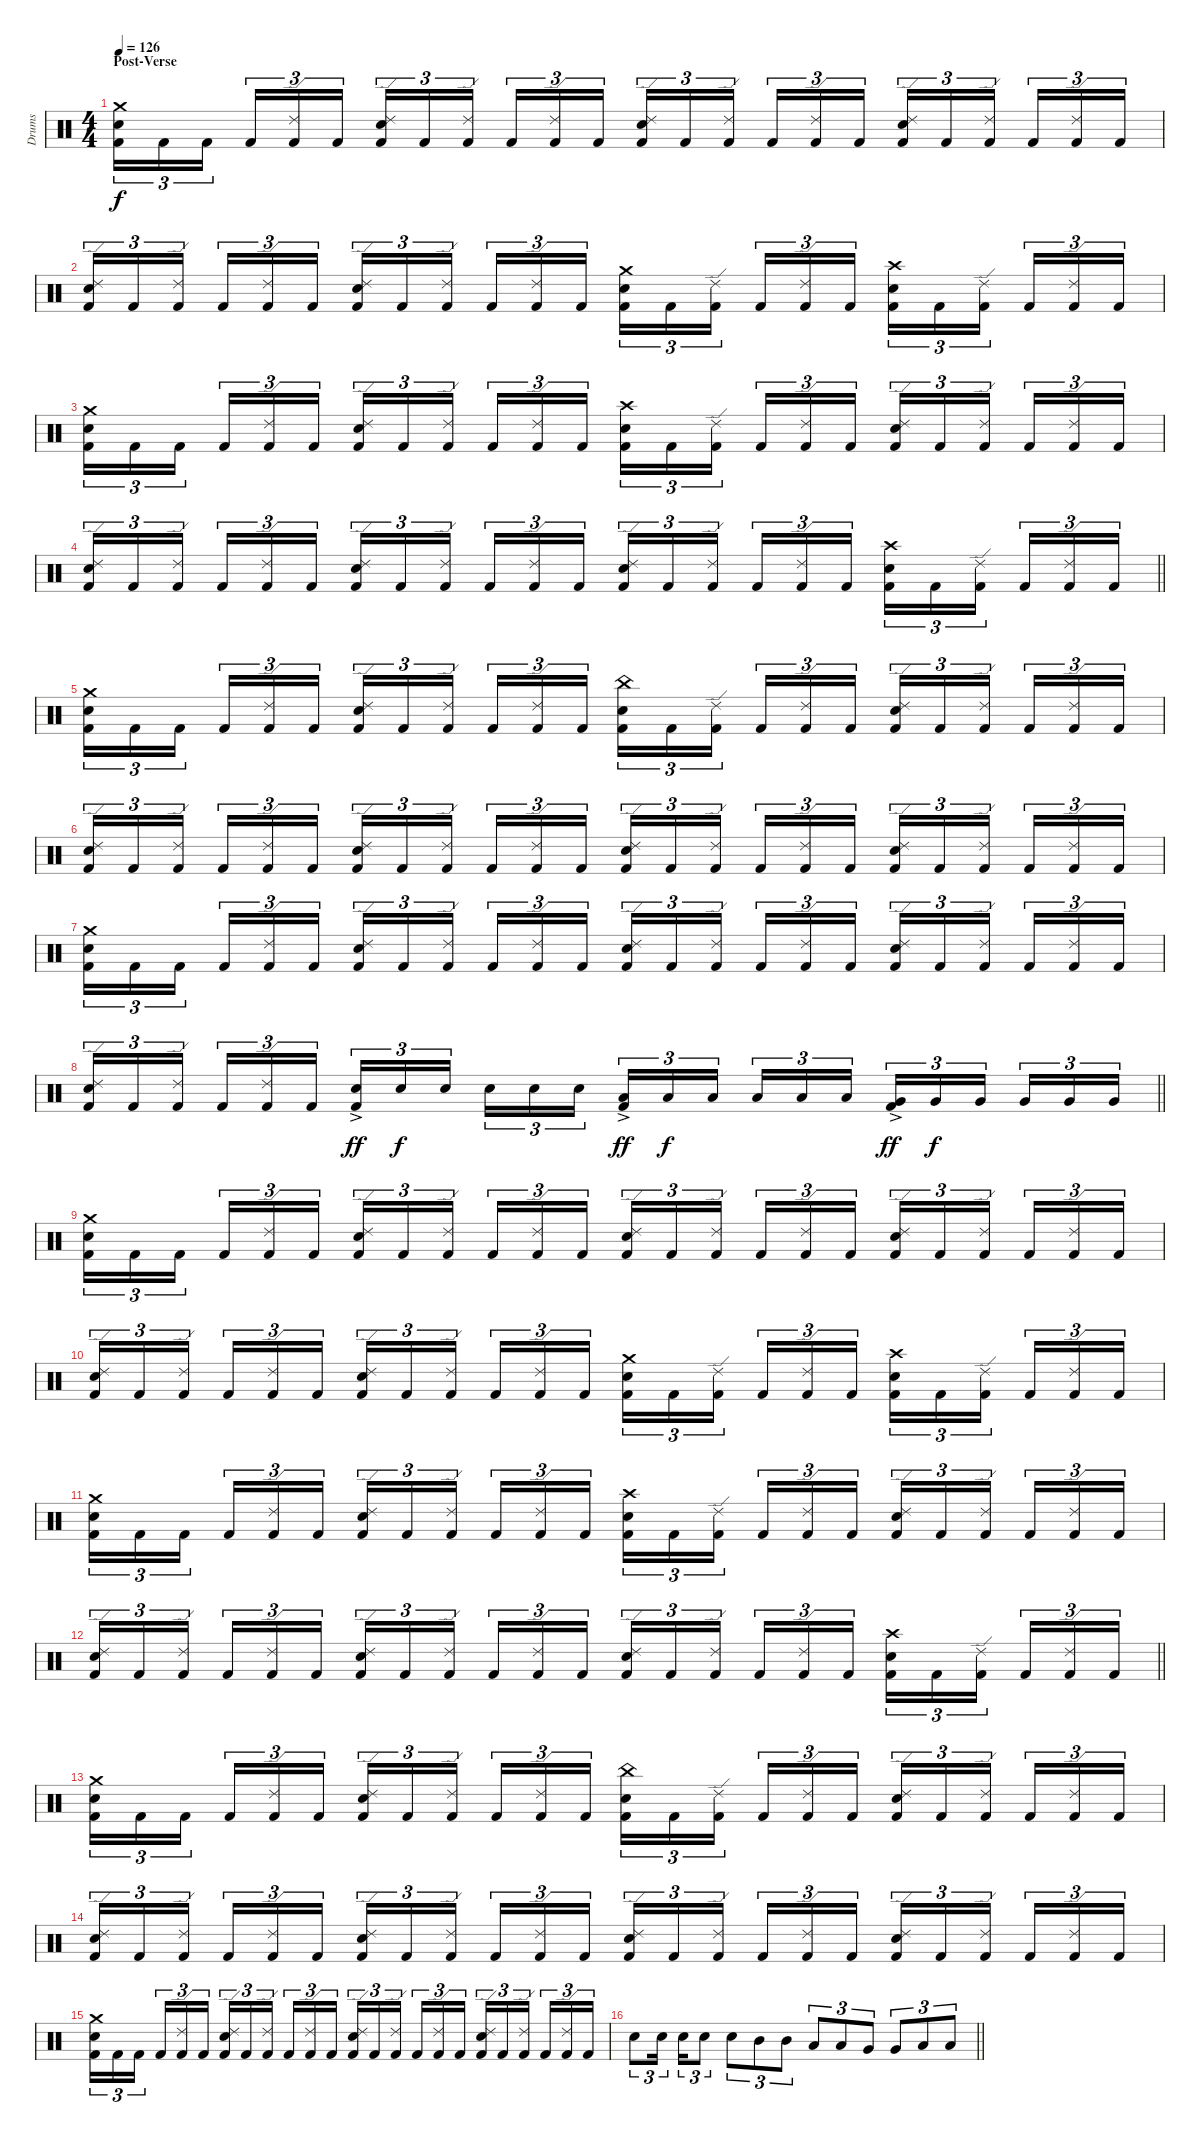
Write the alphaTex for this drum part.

\track ("Drums" "Drums") {instrument percussion}
\staff {score}
\articulation defaults
\ts (4 4)
\section ("" "Post-Verse")
\tempo 126
\clef neutral
\ks c
("Kick (hit) 2" "Snare (hit) 2" "Crash medium (hit)").16{tu (3 2) dy f} "Kick (hit) 2".16{tu (3 2)} "Kick (hit) 2".16{tu (3 2) beam splitsecondary} "Kick (hit) 2".16{tu (3 2)} ("Kick (hit) 2" "Ride (edge) 2").16{tu (3 2)} "Kick (hit) 2".16{tu (3 2)} ("Kick (hit) 2" "Snare (hit) 2" "Ride (edge) 2").16{tu (3 2)} "Kick (hit) 2".16{tu (3 2)} ("Kick (hit) 2" "Ride (edge) 2").16{tu (3 2) beam splitsecondary} "Kick (hit) 2".16{tu (3 2)} ("Kick (hit) 2" "Ride (edge) 2").16{tu (3 2)} "Kick (hit) 2".16{tu (3 2)} ("Kick (hit) 2" "Snare (hit) 2" "Ride (edge) 2").16{tu (3 2)} "Kick (hit) 2".16{tu (3 2)} ("Kick (hit) 2" "Ride (edge) 2").16{tu (3 2) beam splitsecondary} "Kick (hit) 2".16{tu (3 2)} ("Kick (hit) 2" "Ride (edge) 2").16{tu (3 2)} "Kick (hit) 2".16{tu (3 2)} ("Kick (hit) 2" "Snare (hit) 2" "Ride (edge) 2").16{tu (3 2)} "Kick (hit) 2".16{tu (3 2)} ("Kick (hit) 2" "Ride (edge) 2").16{tu (3 2) beam splitsecondary} "Kick (hit) 2".16{tu (3 2)} ("Kick (hit) 2" "Ride (edge) 2").16{tu (3 2)} "Kick (hit) 2".16{tu (3 2)} |
("Kick (hit) 2" "Snare (hit) 2" "Ride (edge) 2").16{tu (3 2)} "Kick (hit) 2".16{tu (3 2)} ("Kick (hit) 2" "Ride (edge) 2").16{tu (3 2) beam splitsecondary} "Kick (hit) 2".16{tu (3 2)} ("Kick (hit) 2" "Ride (edge) 2").16{tu (3 2)} "Kick (hit) 2".16{tu (3 2)} ("Kick (hit) 2" "Snare (hit) 2" "Ride (edge) 2").16{tu (3 2)} "Kick (hit) 2".16{tu (3 2)} ("Kick (hit) 2" "Ride (edge) 2").16{tu (3 2) beam splitsecondary} "Kick (hit) 2".16{tu (3 2)} ("Kick (hit) 2" "Ride (edge) 2").16{tu (3 2)} "Kick (hit) 2".16{tu (3 2)} ("Kick (hit) 2" "Snare (hit) 2" "Crash medium (hit)").16{tu (3 2)} "Kick (hit) 2".16{tu (3 2)} ("Kick (hit) 2" "Ride (edge) 2").16{tu (3 2) beam splitsecondary} "Kick (hit) 2".16{tu (3 2)} ("Kick (hit) 2" "Ride (edge) 2").16{tu (3 2)} "Kick (hit) 2".16{tu (3 2)} ("Kick (hit) 2" "Snare (hit) 2" "Crash high (hit)").16{tu (3 2)} "Kick (hit) 2".16{tu (3 2)} ("Kick (hit) 2" "Ride (edge) 2").16{tu (3 2) beam splitsecondary} "Kick (hit) 2".16{tu (3 2)} ("Kick (hit) 2" "Ride (edge) 2").16{tu (3 2)} "Kick (hit) 2".16{tu (3 2)} |
("Kick (hit) 2" "Snare (hit) 2" "Crash medium (hit)").16{tu (3 2)} "Kick (hit) 2".16{tu (3 2)} "Kick (hit) 2".16{tu (3 2) beam splitsecondary} "Kick (hit) 2".16{tu (3 2)} ("Kick (hit) 2" "Ride (edge) 2").16{tu (3 2)} "Kick (hit) 2".16{tu (3 2)} ("Kick (hit) 2" "Snare (hit) 2" "Ride (edge) 2").16{tu (3 2)} "Kick (hit) 2".16{tu (3 2)} ("Kick (hit) 2" "Ride (edge) 2").16{tu (3 2) beam splitsecondary} "Kick (hit) 2".16{tu (3 2)} ("Kick (hit) 2" "Ride (edge) 2").16{tu (3 2)} "Kick (hit) 2".16{tu (3 2)} ("Kick (hit) 2" "Snare (hit) 2" "Crash high (hit)").16{tu (3 2)} "Kick (hit) 2".16{tu (3 2)} ("Kick (hit) 2" "Ride (edge) 2").16{tu (3 2) beam splitsecondary} "Kick (hit) 2".16{tu (3 2)} ("Kick (hit) 2" "Ride (edge) 2").16{tu (3 2)} "Kick (hit) 2".16{tu (3 2)} ("Kick (hit) 2" "Snare (hit) 2" "Ride (edge) 2").16{tu (3 2)} "Kick (hit) 2".16{tu (3 2)} ("Kick (hit) 2" "Ride (edge) 2").16{tu (3 2) beam splitsecondary} "Kick (hit) 2".16{tu (3 2)} ("Kick (hit) 2" "Ride (edge) 2").16{tu (3 2)} "Kick (hit) 2".16{tu (3 2)} |
\barLineRight lightlight
("Kick (hit) 2" "Snare (hit) 2" "Ride (edge) 2").16{tu (3 2)} "Kick (hit) 2".16{tu (3 2)} ("Kick (hit) 2" "Ride (edge) 2").16{tu (3 2) beam splitsecondary} "Kick (hit) 2".16{tu (3 2)} ("Kick (hit) 2" "Ride (edge) 2").16{tu (3 2)} "Kick (hit) 2".16{tu (3 2)} ("Kick (hit) 2" "Snare (hit) 2" "Ride (edge) 2").16{tu (3 2)} "Kick (hit) 2".16{tu (3 2)} ("Kick (hit) 2" "Ride (edge) 2").16{tu (3 2) beam splitsecondary} "Kick (hit) 2".16{tu (3 2)} ("Kick (hit) 2" "Ride (edge) 2").16{tu (3 2)} "Kick (hit) 2".16{tu (3 2)} ("Kick (hit) 2" "Snare (hit) 2" "Ride (edge) 2").16{tu (3 2)} "Kick (hit) 2".16{tu (3 2)} ("Kick (hit) 2" "Ride (edge) 2").16{tu (3 2) beam splitsecondary} "Kick (hit) 2".16{tu (3 2)} ("Kick (hit) 2" "Ride (edge) 2").16{tu (3 2)} "Kick (hit) 2".16{tu (3 2)} ("Kick (hit) 2" "Snare (hit) 2" "Crash high (hit)").16{tu (3 2)} "Kick (hit) 2".16{tu (3 2)} ("Kick (hit) 2" "Ride (edge) 2").16{tu (3 2) beam splitsecondary} "Kick (hit) 2".16{tu (3 2)} ("Kick (hit) 2" "Ride (edge) 2").16{tu (3 2)} "Kick (hit) 2".16{tu (3 2)} |
\section ("" "")
("Kick (hit) 2" "Snare (hit) 2" "Crash medium (hit)").16{tu (3 2)} "Kick (hit) 2".16{tu (3 2)} "Kick (hit) 2".16{tu (3 2) beam splitsecondary} "Kick (hit) 2".16{tu (3 2)} ("Kick (hit) 2" "Ride (edge) 2").16{tu (3 2)} "Kick (hit) 2".16{tu (3 2)} ("Kick (hit) 2" "Snare (hit) 2" "Ride (edge) 2").16{tu (3 2)} "Kick (hit) 2".16{tu (3 2)} ("Kick (hit) 2" "Ride (edge) 2").16{tu (3 2) beam splitsecondary} "Kick (hit) 2".16{tu (3 2)} ("Kick (hit) 2" "Ride (edge) 2").16{tu (3 2)} "Kick (hit) 2".16{tu (3 2)} ("Kick (hit) 2" "Snare (hit) 2" "China (hit)").16{tu (3 2)} "Kick (hit) 2".16{tu (3 2)} ("Kick (hit) 2" "Ride (edge) 2").16{tu (3 2) beam splitsecondary} "Kick (hit) 2".16{tu (3 2)} ("Kick (hit) 2" "Ride (edge) 2").16{tu (3 2)} "Kick (hit) 2".16{tu (3 2)} ("Kick (hit) 2" "Snare (hit) 2" "Ride (edge) 2").16{tu (3 2)} "Kick (hit) 2".16{tu (3 2)} ("Kick (hit) 2" "Ride (edge) 2").16{tu (3 2) beam splitsecondary} "Kick (hit) 2".16{tu (3 2)} ("Kick (hit) 2" "Ride (edge) 2").16{tu (3 2)} "Kick (hit) 2".16{tu (3 2)} |
("Kick (hit) 2" "Snare (hit) 2" "Ride (edge) 2").16{tu (3 2)} "Kick (hit) 2".16{tu (3 2)} ("Kick (hit) 2" "Ride (edge) 2").16{tu (3 2) beam splitsecondary} "Kick (hit) 2".16{tu (3 2)} ("Kick (hit) 2" "Ride (edge) 2").16{tu (3 2)} "Kick (hit) 2".16{tu (3 2)} ("Kick (hit) 2" "Snare (hit) 2" "Ride (edge) 2").16{tu (3 2)} "Kick (hit) 2".16{tu (3 2)} ("Kick (hit) 2" "Ride (edge) 2").16{tu (3 2) beam splitsecondary} "Kick (hit) 2".16{tu (3 2)} ("Kick (hit) 2" "Ride (edge) 2").16{tu (3 2)} "Kick (hit) 2".16{tu (3 2)} ("Kick (hit) 2" "Snare (hit) 2" "Ride (edge) 2").16{tu (3 2)} "Kick (hit) 2".16{tu (3 2)} ("Kick (hit) 2" "Ride (edge) 2").16{tu (3 2) beam splitsecondary} "Kick (hit) 2".16{tu (3 2)} ("Kick (hit) 2" "Ride (edge) 2").16{tu (3 2)} "Kick (hit) 2".16{tu (3 2)} ("Kick (hit) 2" "Snare (hit) 2" "Ride (edge) 2").16{tu (3 2)} "Kick (hit) 2".16{tu (3 2)} ("Kick (hit) 2" "Ride (edge) 2").16{tu (3 2) beam splitsecondary} "Kick (hit) 2".16{tu (3 2)} ("Kick (hit) 2" "Ride (edge) 2").16{tu (3 2)} "Kick (hit) 2".16{tu (3 2)} |
("Kick (hit) 2" "Snare (hit) 2" "Crash medium (hit)").16{tu (3 2)} "Kick (hit) 2".16{tu (3 2)} "Kick (hit) 2".16{tu (3 2) beam splitsecondary} "Kick (hit) 2".16{tu (3 2)} ("Kick (hit) 2" "Ride (edge) 2").16{tu (3 2)} "Kick (hit) 2".16{tu (3 2)} ("Kick (hit) 2" "Snare (hit) 2" "Ride (edge) 2").16{tu (3 2)} "Kick (hit) 2".16{tu (3 2)} ("Kick (hit) 2" "Ride (edge) 2").16{tu (3 2) beam splitsecondary} "Kick (hit) 2".16{tu (3 2)} ("Kick (hit) 2" "Ride (edge) 2").16{tu (3 2)} "Kick (hit) 2".16{tu (3 2)} ("Kick (hit) 2" "Snare (hit) 2" "Ride (edge) 2").16{tu (3 2)} "Kick (hit) 2".16{tu (3 2)} ("Kick (hit) 2" "Ride (edge) 2").16{tu (3 2) beam splitsecondary} "Kick (hit) 2".16{tu (3 2)} ("Kick (hit) 2" "Ride (edge) 2").16{tu (3 2)} "Kick (hit) 2".16{tu (3 2)} ("Kick (hit) 2" "Snare (hit) 2" "Ride (edge) 2").16{tu (3 2)} "Kick (hit) 2".16{tu (3 2)} ("Kick (hit) 2" "Ride (edge) 2").16{tu (3 2) beam splitsecondary} "Kick (hit) 2".16{tu (3 2)} ("Kick (hit) 2" "Ride (edge) 2").16{tu (3 2)} "Kick (hit) 2".16{tu (3 2)} |
\barLineRight lightlight
("Kick (hit) 2" "Snare (hit) 2" "Ride (edge) 2").16{tu (3 2)} "Kick (hit) 2".16{tu (3 2)} ("Kick (hit) 2" "Ride (edge) 2").16{tu (3 2) beam splitsecondary} "Kick (hit) 2".16{tu (3 2)} ("Kick (hit) 2" "Ride (edge) 2").16{tu (3 2)} "Kick (hit) 2".16{tu (3 2)} ("Kick (hit) 2"{ac} "Snare (hit) 2").16{tu (3 2) dy ff} "Snare (hit) 2".16{tu (3 2) dy f} "Snare (hit) 2".16{tu (3 2) beam splitsecondary} "Snare (hit) 2".16{tu (3 2)} "Snare (hit) 2".16{tu (3 2)} "Snare (hit) 2".16{tu (3 2)} ("Kick (hit) 2"{ac} "Low Tom (hit)").16{tu (3 2) dy ff} "Low Tom (hit)".16{tu (3 2) dy f} "Low Tom (hit)".16{tu (3 2) beam splitsecondary} "Low Tom (hit)".16{tu (3 2)} "Low Tom (hit)".16{tu (3 2)} "Low Tom (hit)".16{tu (3 2)} ("Kick (hit) 2"{ac} "Very Low Tom (hit)").16{tu (3 2) dy ff} "Very Low Tom (hit)".16{tu (3 2) dy f} "Very Low Tom (hit)".16{tu (3 2) beam splitsecondary} "Very Low Tom (hit)".16{tu (3 2)} "Very Low Tom (hit)".16{tu (3 2)} "Very Low Tom (hit)".16{tu (3 2)} |
\section ("" "")
("Kick (hit) 2" "Snare (hit) 2" "Crash medium (hit)").16{tu (3 2)} "Kick (hit) 2".16{tu (3 2)} "Kick (hit) 2".16{tu (3 2) beam splitsecondary} "Kick (hit) 2".16{tu (3 2)} ("Kick (hit) 2" "Ride (edge) 2").16{tu (3 2)} "Kick (hit) 2".16{tu (3 2)} ("Kick (hit) 2" "Snare (hit) 2" "Ride (edge) 2").16{tu (3 2)} "Kick (hit) 2".16{tu (3 2)} ("Kick (hit) 2" "Ride (edge) 2").16{tu (3 2) beam splitsecondary} "Kick (hit) 2".16{tu (3 2)} ("Kick (hit) 2" "Ride (edge) 2").16{tu (3 2)} "Kick (hit) 2".16{tu (3 2)} ("Kick (hit) 2" "Snare (hit) 2" "Ride (edge) 2").16{tu (3 2)} "Kick (hit) 2".16{tu (3 2)} ("Kick (hit) 2" "Ride (edge) 2").16{tu (3 2) beam splitsecondary} "Kick (hit) 2".16{tu (3 2)} ("Kick (hit) 2" "Ride (edge) 2").16{tu (3 2)} "Kick (hit) 2".16{tu (3 2)} ("Kick (hit) 2" "Snare (hit) 2" "Ride (edge) 2").16{tu (3 2)} "Kick (hit) 2".16{tu (3 2)} ("Kick (hit) 2" "Ride (edge) 2").16{tu (3 2) beam splitsecondary} "Kick (hit) 2".16{tu (3 2)} ("Kick (hit) 2" "Ride (edge) 2").16{tu (3 2)} "Kick (hit) 2".16{tu (3 2)} |
("Kick (hit) 2" "Snare (hit) 2" "Ride (edge) 2").16{tu (3 2)} "Kick (hit) 2".16{tu (3 2)} ("Kick (hit) 2" "Ride (edge) 2").16{tu (3 2) beam splitsecondary} "Kick (hit) 2".16{tu (3 2)} ("Kick (hit) 2" "Ride (edge) 2").16{tu (3 2)} "Kick (hit) 2".16{tu (3 2)} ("Kick (hit) 2" "Snare (hit) 2" "Ride (edge) 2").16{tu (3 2)} "Kick (hit) 2".16{tu (3 2)} ("Kick (hit) 2" "Ride (edge) 2").16{tu (3 2) beam splitsecondary} "Kick (hit) 2".16{tu (3 2)} ("Kick (hit) 2" "Ride (edge) 2").16{tu (3 2)} "Kick (hit) 2".16{tu (3 2)} ("Kick (hit) 2" "Snare (hit) 2" "Crash medium (hit)").16{tu (3 2)} "Kick (hit) 2".16{tu (3 2)} ("Kick (hit) 2" "Ride (edge) 2").16{tu (3 2) beam splitsecondary} "Kick (hit) 2".16{tu (3 2)} ("Kick (hit) 2" "Ride (edge) 2").16{tu (3 2)} "Kick (hit) 2".16{tu (3 2)} ("Kick (hit) 2" "Snare (hit) 2" "Crash high (hit)").16{tu (3 2)} "Kick (hit) 2".16{tu (3 2)} ("Kick (hit) 2" "Ride (edge) 2").16{tu (3 2) beam splitsecondary} "Kick (hit) 2".16{tu (3 2)} ("Kick (hit) 2" "Ride (edge) 2").16{tu (3 2)} "Kick (hit) 2".16{tu (3 2)} |
("Kick (hit) 2" "Snare (hit) 2" "Crash medium (hit)").16{tu (3 2)} "Kick (hit) 2".16{tu (3 2)} "Kick (hit) 2".16{tu (3 2) beam splitsecondary} "Kick (hit) 2".16{tu (3 2)} ("Kick (hit) 2" "Ride (edge) 2").16{tu (3 2)} "Kick (hit) 2".16{tu (3 2)} ("Kick (hit) 2" "Snare (hit) 2" "Ride (edge) 2").16{tu (3 2)} "Kick (hit) 2".16{tu (3 2)} ("Kick (hit) 2" "Ride (edge) 2").16{tu (3 2) beam splitsecondary} "Kick (hit) 2".16{tu (3 2)} ("Kick (hit) 2" "Ride (edge) 2").16{tu (3 2)} "Kick (hit) 2".16{tu (3 2)} ("Kick (hit) 2" "Snare (hit) 2" "Crash high (hit)").16{tu (3 2)} "Kick (hit) 2".16{tu (3 2)} ("Kick (hit) 2" "Ride (edge) 2").16{tu (3 2) beam splitsecondary} "Kick (hit) 2".16{tu (3 2)} ("Kick (hit) 2" "Ride (edge) 2").16{tu (3 2)} "Kick (hit) 2".16{tu (3 2)} ("Kick (hit) 2" "Snare (hit) 2" "Ride (edge) 2").16{tu (3 2)} "Kick (hit) 2".16{tu (3 2)} ("Kick (hit) 2" "Ride (edge) 2").16{tu (3 2) beam splitsecondary} "Kick (hit) 2".16{tu (3 2)} ("Kick (hit) 2" "Ride (edge) 2").16{tu (3 2)} "Kick (hit) 2".16{tu (3 2)} |
\barLineRight lightlight
("Kick (hit) 2" "Snare (hit) 2" "Ride (edge) 2").16{tu (3 2)} "Kick (hit) 2".16{tu (3 2)} ("Kick (hit) 2" "Ride (edge) 2").16{tu (3 2) beam splitsecondary} "Kick (hit) 2".16{tu (3 2)} ("Kick (hit) 2" "Ride (edge) 2").16{tu (3 2)} "Kick (hit) 2".16{tu (3 2)} ("Kick (hit) 2" "Snare (hit) 2" "Ride (edge) 2").16{tu (3 2)} "Kick (hit) 2".16{tu (3 2)} ("Kick (hit) 2" "Ride (edge) 2").16{tu (3 2) beam splitsecondary} "Kick (hit) 2".16{tu (3 2)} ("Kick (hit) 2" "Ride (edge) 2").16{tu (3 2)} "Kick (hit) 2".16{tu (3 2)} ("Kick (hit) 2" "Snare (hit) 2" "Ride (edge) 2").16{tu (3 2)} "Kick (hit) 2".16{tu (3 2)} ("Kick (hit) 2" "Ride (edge) 2").16{tu (3 2) beam splitsecondary} "Kick (hit) 2".16{tu (3 2)} ("Kick (hit) 2" "Ride (edge) 2").16{tu (3 2)} "Kick (hit) 2".16{tu (3 2)} ("Kick (hit) 2" "Snare (hit) 2" "Crash high (hit)").16{tu (3 2)} "Kick (hit) 2".16{tu (3 2)} ("Kick (hit) 2" "Ride (edge) 2").16{tu (3 2) beam splitsecondary} "Kick (hit) 2".16{tu (3 2)} ("Kick (hit) 2" "Ride (edge) 2").16{tu (3 2)} "Kick (hit) 2".16{tu (3 2)} |
\section ("" "")
("Kick (hit) 2" "Snare (hit) 2" "Crash medium (hit)").16{tu (3 2)} "Kick (hit) 2".16{tu (3 2)} "Kick (hit) 2".16{tu (3 2) beam splitsecondary} "Kick (hit) 2".16{tu (3 2)} ("Kick (hit) 2" "Ride (edge) 2").16{tu (3 2)} "Kick (hit) 2".16{tu (3 2)} ("Kick (hit) 2" "Snare (hit) 2" "Ride (edge) 2").16{tu (3 2)} "Kick (hit) 2".16{tu (3 2)} ("Kick (hit) 2" "Ride (edge) 2").16{tu (3 2) beam splitsecondary} "Kick (hit) 2".16{tu (3 2)} ("Kick (hit) 2" "Ride (edge) 2").16{tu (3 2)} "Kick (hit) 2".16{tu (3 2)} ("Kick (hit) 2" "Snare (hit) 2" "China (hit)").16{tu (3 2)} "Kick (hit) 2".16{tu (3 2)} ("Kick (hit) 2" "Ride (edge) 2").16{tu (3 2) beam splitsecondary} "Kick (hit) 2".16{tu (3 2)} ("Kick (hit) 2" "Ride (edge) 2").16{tu (3 2)} "Kick (hit) 2".16{tu (3 2)} ("Kick (hit) 2" "Snare (hit) 2" "Ride (edge) 2").16{tu (3 2)} "Kick (hit) 2".16{tu (3 2)} ("Kick (hit) 2" "Ride (edge) 2").16{tu (3 2) beam splitsecondary} "Kick (hit) 2".16{tu (3 2)} ("Kick (hit) 2" "Ride (edge) 2").16{tu (3 2)} "Kick (hit) 2".16{tu (3 2)} |
("Kick (hit) 2" "Snare (hit) 2" "Ride (edge) 2").16{tu (3 2)} "Kick (hit) 2".16{tu (3 2)} ("Kick (hit) 2" "Ride (edge) 2").16{tu (3 2) beam splitsecondary} "Kick (hit) 2".16{tu (3 2)} ("Kick (hit) 2" "Ride (edge) 2").16{tu (3 2)} "Kick (hit) 2".16{tu (3 2)} ("Kick (hit) 2" "Snare (hit) 2" "Ride (edge) 2").16{tu (3 2)} "Kick (hit) 2".16{tu (3 2)} ("Kick (hit) 2" "Ride (edge) 2").16{tu (3 2) beam splitsecondary} "Kick (hit) 2".16{tu (3 2)} ("Kick (hit) 2" "Ride (edge) 2").16{tu (3 2)} "Kick (hit) 2".16{tu (3 2)} ("Kick (hit) 2" "Snare (hit) 2" "Ride (edge) 2").16{tu (3 2)} "Kick (hit) 2".16{tu (3 2)} ("Kick (hit) 2" "Ride (edge) 2").16{tu (3 2) beam splitsecondary} "Kick (hit) 2".16{tu (3 2)} ("Kick (hit) 2" "Ride (edge) 2").16{tu (3 2)} "Kick (hit) 2".16{tu (3 2)} ("Kick (hit) 2" "Snare (hit) 2" "Ride (edge) 2").16{tu (3 2)} "Kick (hit) 2".16{tu (3 2)} ("Kick (hit) 2" "Ride (edge) 2").16{tu (3 2) beam splitsecondary} "Kick (hit) 2".16{tu (3 2)} ("Kick (hit) 2" "Ride (edge) 2").16{tu (3 2)} "Kick (hit) 2".16{tu (3 2)} |
("Kick (hit) 2" "Snare (hit) 2" "Crash medium (hit)").16{tu (3 2)} "Kick (hit) 2".16{tu (3 2)} "Kick (hit) 2".16{tu (3 2) beam splitsecondary} "Kick (hit) 2".16{tu (3 2)} ("Kick (hit) 2" "Ride (edge) 2").16{tu (3 2)} "Kick (hit) 2".16{tu (3 2)} ("Kick (hit) 2" "Snare (hit) 2" "Ride (edge) 2").16{tu (3 2)} "Kick (hit) 2".16{tu (3 2)} ("Kick (hit) 2" "Ride (edge) 2").16{tu (3 2) beam splitsecondary} "Kick (hit) 2".16{tu (3 2)} ("Kick (hit) 2" "Ride (edge) 2").16{tu (3 2)} "Kick (hit) 2".16{tu (3 2)} ("Kick (hit) 2" "Snare (hit) 2" "Ride (edge) 2").16{tu (3 2)} "Kick (hit) 2".16{tu (3 2)} ("Kick (hit) 2" "Ride (edge) 2").16{tu (3 2) beam splitsecondary} "Kick (hit) 2".16{tu (3 2)} ("Kick (hit) 2" "Ride (edge) 2").16{tu (3 2)} "Kick (hit) 2".16{tu (3 2)} ("Kick (hit) 2" "Snare (hit) 2" "Ride (edge) 2").16{tu (3 2)} "Kick (hit) 2".16{tu (3 2)} ("Kick (hit) 2" "Ride (edge) 2").16{tu (3 2) beam splitsecondary} "Kick (hit) 2".16{tu (3 2)} ("Kick (hit) 2" "Ride (edge) 2").16{tu (3 2)} "Kick (hit) 2".16{tu (3 2)} |
\barLineRight lightlight "Snare (hit) 2".8{tu (3 2)} "Snare (hit) 2".16{tu (3 2) beam splitsecondary} "Snare (hit) 2".16{tu (3 2)} "Snare (hit) 2".8{tu (3 2)} "Snare (hit) 2".8{tu (3 2)} "Mid Tom (hit)".8{tu (3 2)} "Mid Tom (hit)".8{tu (3 2)} "Low Tom (hit)".8{tu (3 2)} "Low Tom (hit)".8{tu (3 2)} "Very Low Tom (hit)".8{tu (3 2)} "Very Low Tom (hit)".8{tu (3 2)} "Low Floor Tom (hit)".8{tu (3 2)} "Low Floor Tom (hit)".8{tu (3 2)}
